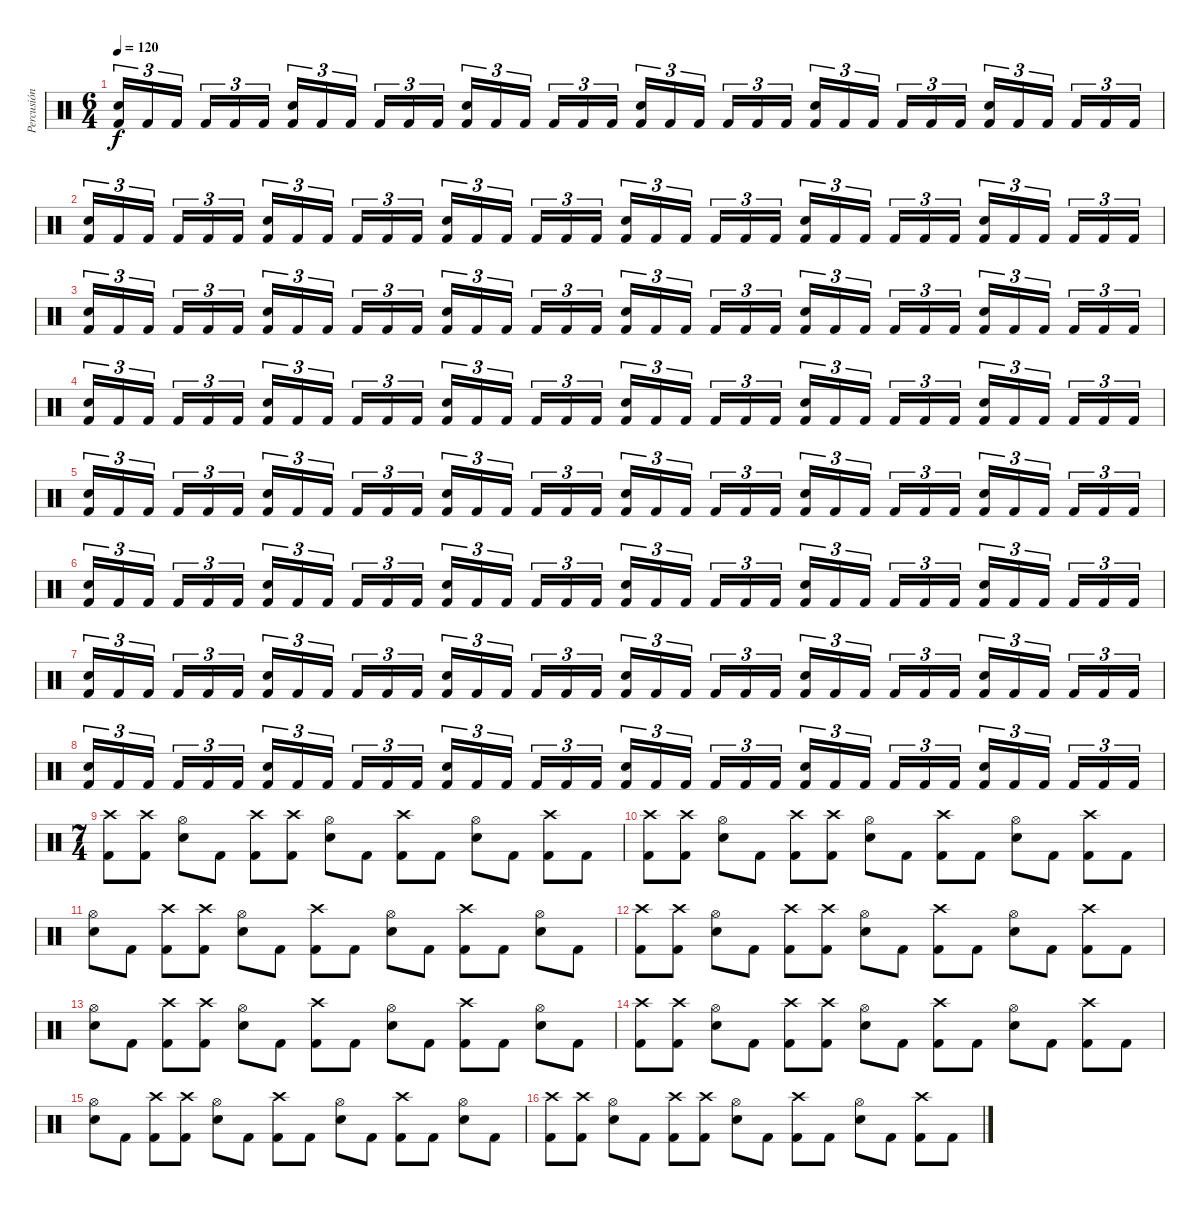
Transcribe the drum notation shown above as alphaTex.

\track ("Percusión" "Percusión") {instrument percussion}
\staff {score}
\articulation defaults
\ts (6 4)
\tempo 120
\clef neutral
\ks c
("Electric Snare (hit)" "Kick (hit) 2").16{tu (3 2) dy f} "Kick (hit) 2".16{tu (3 2)} "Kick (hit) 2".16{tu (3 2)} "Kick (hit) 2".16{tu (3 2)} "Kick (hit) 2".16{tu (3 2)} "Kick (hit) 2".16{tu (3 2)} ("Electric Snare (hit)" "Kick (hit) 2").16{tu (3 2)} "Kick (hit) 2".16{tu (3 2)} "Kick (hit) 2".16{tu (3 2)} "Kick (hit) 2".16{tu (3 2)} "Kick (hit) 2".16{tu (3 2)} "Kick (hit) 2".16{tu (3 2)} ("Electric Snare (hit)" "Kick (hit) 2").16{tu (3 2)} "Kick (hit) 2".16{tu (3 2)} "Kick (hit) 2".16{tu (3 2)} "Kick (hit) 2".16{tu (3 2)} "Kick (hit) 2".16{tu (3 2)} "Kick (hit) 2".16{tu (3 2)} ("Electric Snare (hit)" "Kick (hit) 2").16{tu (3 2)} "Kick (hit) 2".16{tu (3 2)} "Kick (hit) 2".16{tu (3 2)} "Kick (hit) 2".16{tu (3 2)} "Kick (hit) 2".16{tu (3 2)} "Kick (hit) 2".16{tu (3 2)} ("Electric Snare (hit)" "Kick (hit) 2").16{tu (3 2)} "Kick (hit) 2".16{tu (3 2)} "Kick (hit) 2".16{tu (3 2)} "Kick (hit) 2".16{tu (3 2)} "Kick (hit) 2".16{tu (3 2)} "Kick (hit) 2".16{tu (3 2)} ("Electric Snare (hit)" "Kick (hit) 2").16{tu (3 2)} "Kick (hit) 2".16{tu (3 2)} "Kick (hit) 2".16{tu (3 2)} "Kick (hit) 2".16{tu (3 2)} "Kick (hit) 2".16{tu (3 2)} "Kick (hit) 2".16{tu (3 2)} |
("Electric Snare (hit)" "Kick (hit) 2").16{tu (3 2)} "Kick (hit) 2".16{tu (3 2)} "Kick (hit) 2".16{tu (3 2)} "Kick (hit) 2".16{tu (3 2)} "Kick (hit) 2".16{tu (3 2)} "Kick (hit) 2".16{tu (3 2)} ("Electric Snare (hit)" "Kick (hit) 2").16{tu (3 2)} "Kick (hit) 2".16{tu (3 2)} "Kick (hit) 2".16{tu (3 2)} "Kick (hit) 2".16{tu (3 2)} "Kick (hit) 2".16{tu (3 2)} "Kick (hit) 2".16{tu (3 2)} ("Electric Snare (hit)" "Kick (hit) 2").16{tu (3 2)} "Kick (hit) 2".16{tu (3 2)} "Kick (hit) 2".16{tu (3 2)} "Kick (hit) 2".16{tu (3 2)} "Kick (hit) 2".16{tu (3 2)} "Kick (hit) 2".16{tu (3 2)} ("Electric Snare (hit)" "Kick (hit) 2").16{tu (3 2)} "Kick (hit) 2".16{tu (3 2)} "Kick (hit) 2".16{tu (3 2)} "Kick (hit) 2".16{tu (3 2)} "Kick (hit) 2".16{tu (3 2)} "Kick (hit) 2".16{tu (3 2)} ("Electric Snare (hit)" "Kick (hit) 2").16{tu (3 2)} "Kick (hit) 2".16{tu (3 2)} "Kick (hit) 2".16{tu (3 2)} "Kick (hit) 2".16{tu (3 2)} "Kick (hit) 2".16{tu (3 2)} "Kick (hit) 2".16{tu (3 2)} ("Electric Snare (hit)" "Kick (hit) 2").16{tu (3 2)} "Kick (hit) 2".16{tu (3 2)} "Kick (hit) 2".16{tu (3 2)} "Kick (hit) 2".16{tu (3 2)} "Kick (hit) 2".16{tu (3 2)} "Kick (hit) 2".16{tu (3 2)} |
("Electric Snare (hit)" "Kick (hit) 2").16{tu (3 2)} "Kick (hit) 2".16{tu (3 2)} "Kick (hit) 2".16{tu (3 2)} "Kick (hit) 2".16{tu (3 2)} "Kick (hit) 2".16{tu (3 2)} "Kick (hit) 2".16{tu (3 2)} ("Electric Snare (hit)" "Kick (hit) 2").16{tu (3 2)} "Kick (hit) 2".16{tu (3 2)} "Kick (hit) 2".16{tu (3 2)} "Kick (hit) 2".16{tu (3 2)} "Kick (hit) 2".16{tu (3 2)} "Kick (hit) 2".16{tu (3 2)} ("Electric Snare (hit)" "Kick (hit) 2").16{tu (3 2)} "Kick (hit) 2".16{tu (3 2)} "Kick (hit) 2".16{tu (3 2)} "Kick (hit) 2".16{tu (3 2)} "Kick (hit) 2".16{tu (3 2)} "Kick (hit) 2".16{tu (3 2)} ("Electric Snare (hit)" "Kick (hit) 2").16{tu (3 2)} "Kick (hit) 2".16{tu (3 2)} "Kick (hit) 2".16{tu (3 2)} "Kick (hit) 2".16{tu (3 2)} "Kick (hit) 2".16{tu (3 2)} "Kick (hit) 2".16{tu (3 2)} ("Electric Snare (hit)" "Kick (hit) 2").16{tu (3 2)} "Kick (hit) 2".16{tu (3 2)} "Kick (hit) 2".16{tu (3 2)} "Kick (hit) 2".16{tu (3 2)} "Kick (hit) 2".16{tu (3 2)} "Kick (hit) 2".16{tu (3 2)} ("Electric Snare (hit)" "Kick (hit) 2").16{tu (3 2)} "Kick (hit) 2".16{tu (3 2)} "Kick (hit) 2".16{tu (3 2)} "Kick (hit) 2".16{tu (3 2)} "Kick (hit) 2".16{tu (3 2)} "Kick (hit) 2".16{tu (3 2)} |
("Electric Snare (hit)" "Kick (hit) 2").16{tu (3 2)} "Kick (hit) 2".16{tu (3 2)} "Kick (hit) 2".16{tu (3 2)} "Kick (hit) 2".16{tu (3 2)} "Kick (hit) 2".16{tu (3 2)} "Kick (hit) 2".16{tu (3 2)} ("Electric Snare (hit)" "Kick (hit) 2").16{tu (3 2)} "Kick (hit) 2".16{tu (3 2)} "Kick (hit) 2".16{tu (3 2)} "Kick (hit) 2".16{tu (3 2)} "Kick (hit) 2".16{tu (3 2)} "Kick (hit) 2".16{tu (3 2)} ("Electric Snare (hit)" "Kick (hit) 2").16{tu (3 2)} "Kick (hit) 2".16{tu (3 2)} "Kick (hit) 2".16{tu (3 2)} "Kick (hit) 2".16{tu (3 2)} "Kick (hit) 2".16{tu (3 2)} "Kick (hit) 2".16{tu (3 2)} ("Electric Snare (hit)" "Kick (hit) 2").16{tu (3 2)} "Kick (hit) 2".16{tu (3 2)} "Kick (hit) 2".16{tu (3 2)} "Kick (hit) 2".16{tu (3 2)} "Kick (hit) 2".16{tu (3 2)} "Kick (hit) 2".16{tu (3 2)} ("Electric Snare (hit)" "Kick (hit) 2").16{tu (3 2)} "Kick (hit) 2".16{tu (3 2)} "Kick (hit) 2".16{tu (3 2)} "Kick (hit) 2".16{tu (3 2)} "Kick (hit) 2".16{tu (3 2)} "Kick (hit) 2".16{tu (3 2)} ("Electric Snare (hit)" "Kick (hit) 2").16{tu (3 2)} "Kick (hit) 2".16{tu (3 2)} "Kick (hit) 2".16{tu (3 2)} "Kick (hit) 2".16{tu (3 2)} "Kick (hit) 2".16{tu (3 2)} "Kick (hit) 2".16{tu (3 2)} |
("Electric Snare (hit)" "Kick (hit) 2").16{tu (3 2)} "Kick (hit) 2".16{tu (3 2)} "Kick (hit) 2".16{tu (3 2)} "Kick (hit) 2".16{tu (3 2)} "Kick (hit) 2".16{tu (3 2)} "Kick (hit) 2".16{tu (3 2)} ("Electric Snare (hit)" "Kick (hit) 2").16{tu (3 2)} "Kick (hit) 2".16{tu (3 2)} "Kick (hit) 2".16{tu (3 2)} "Kick (hit) 2".16{tu (3 2)} "Kick (hit) 2".16{tu (3 2)} "Kick (hit) 2".16{tu (3 2)} ("Electric Snare (hit)" "Kick (hit) 2").16{tu (3 2)} "Kick (hit) 2".16{tu (3 2)} "Kick (hit) 2".16{tu (3 2)} "Kick (hit) 2".16{tu (3 2)} "Kick (hit) 2".16{tu (3 2)} "Kick (hit) 2".16{tu (3 2)} ("Electric Snare (hit)" "Kick (hit) 2").16{tu (3 2)} "Kick (hit) 2".16{tu (3 2)} "Kick (hit) 2".16{tu (3 2)} "Kick (hit) 2".16{tu (3 2)} "Kick (hit) 2".16{tu (3 2)} "Kick (hit) 2".16{tu (3 2)} ("Electric Snare (hit)" "Kick (hit) 2").16{tu (3 2)} "Kick (hit) 2".16{tu (3 2)} "Kick (hit) 2".16{tu (3 2)} "Kick (hit) 2".16{tu (3 2)} "Kick (hit) 2".16{tu (3 2)} "Kick (hit) 2".16{tu (3 2)} ("Electric Snare (hit)" "Kick (hit) 2").16{tu (3 2)} "Kick (hit) 2".16{tu (3 2)} "Kick (hit) 2".16{tu (3 2)} "Kick (hit) 2".16{tu (3 2)} "Kick (hit) 2".16{tu (3 2)} "Kick (hit) 2".16{tu (3 2)} |
("Electric Snare (hit)" "Kick (hit) 2").16{tu (3 2)} "Kick (hit) 2".16{tu (3 2)} "Kick (hit) 2".16{tu (3 2)} "Kick (hit) 2".16{tu (3 2)} "Kick (hit) 2".16{tu (3 2)} "Kick (hit) 2".16{tu (3 2)} ("Electric Snare (hit)" "Kick (hit) 2").16{tu (3 2)} "Kick (hit) 2".16{tu (3 2)} "Kick (hit) 2".16{tu (3 2)} "Kick (hit) 2".16{tu (3 2)} "Kick (hit) 2".16{tu (3 2)} "Kick (hit) 2".16{tu (3 2)} ("Electric Snare (hit)" "Kick (hit) 2").16{tu (3 2)} "Kick (hit) 2".16{tu (3 2)} "Kick (hit) 2".16{tu (3 2)} "Kick (hit) 2".16{tu (3 2)} "Kick (hit) 2".16{tu (3 2)} "Kick (hit) 2".16{tu (3 2)} ("Electric Snare (hit)" "Kick (hit) 2").16{tu (3 2)} "Kick (hit) 2".16{tu (3 2)} "Kick (hit) 2".16{tu (3 2)} "Kick (hit) 2".16{tu (3 2)} "Kick (hit) 2".16{tu (3 2)} "Kick (hit) 2".16{tu (3 2)} ("Electric Snare (hit)" "Kick (hit) 2").16{tu (3 2)} "Kick (hit) 2".16{tu (3 2)} "Kick (hit) 2".16{tu (3 2)} "Kick (hit) 2".16{tu (3 2)} "Kick (hit) 2".16{tu (3 2)} "Kick (hit) 2".16{tu (3 2)} ("Electric Snare (hit)" "Kick (hit) 2").16{tu (3 2)} "Kick (hit) 2".16{tu (3 2)} "Kick (hit) 2".16{tu (3 2)} "Kick (hit) 2".16{tu (3 2)} "Kick (hit) 2".16{tu (3 2)} "Kick (hit) 2".16{tu (3 2)} |
("Electric Snare (hit)" "Kick (hit) 2").16{tu (3 2)} "Kick (hit) 2".16{tu (3 2)} "Kick (hit) 2".16{tu (3 2)} "Kick (hit) 2".16{tu (3 2)} "Kick (hit) 2".16{tu (3 2)} "Kick (hit) 2".16{tu (3 2)} ("Electric Snare (hit)" "Kick (hit) 2").16{tu (3 2)} "Kick (hit) 2".16{tu (3 2)} "Kick (hit) 2".16{tu (3 2)} "Kick (hit) 2".16{tu (3 2)} "Kick (hit) 2".16{tu (3 2)} "Kick (hit) 2".16{tu (3 2)} ("Electric Snare (hit)" "Kick (hit) 2").16{tu (3 2)} "Kick (hit) 2".16{tu (3 2)} "Kick (hit) 2".16{tu (3 2)} "Kick (hit) 2".16{tu (3 2)} "Kick (hit) 2".16{tu (3 2)} "Kick (hit) 2".16{tu (3 2)} ("Electric Snare (hit)" "Kick (hit) 2").16{tu (3 2)} "Kick (hit) 2".16{tu (3 2)} "Kick (hit) 2".16{tu (3 2)} "Kick (hit) 2".16{tu (3 2)} "Kick (hit) 2".16{tu (3 2)} "Kick (hit) 2".16{tu (3 2)} ("Electric Snare (hit)" "Kick (hit) 2").16{tu (3 2)} "Kick (hit) 2".16{tu (3 2)} "Kick (hit) 2".16{tu (3 2)} "Kick (hit) 2".16{tu (3 2)} "Kick (hit) 2".16{tu (3 2)} "Kick (hit) 2".16{tu (3 2)} ("Electric Snare (hit)" "Kick (hit) 2").16{tu (3 2)} "Kick (hit) 2".16{tu (3 2)} "Kick (hit) 2".16{tu (3 2)} "Kick (hit) 2".16{tu (3 2)} "Kick (hit) 2".16{tu (3 2)} "Kick (hit) 2".16{tu (3 2)} |
("Electric Snare (hit)" "Kick (hit) 2").16{tu (3 2)} "Kick (hit) 2".16{tu (3 2)} "Kick (hit) 2".16{tu (3 2)} "Kick (hit) 2".16{tu (3 2)} "Kick (hit) 2".16{tu (3 2)} "Kick (hit) 2".16{tu (3 2)} ("Electric Snare (hit)" "Kick (hit) 2").16{tu (3 2)} "Kick (hit) 2".16{tu (3 2)} "Kick (hit) 2".16{tu (3 2)} "Kick (hit) 2".16{tu (3 2)} "Kick (hit) 2".16{tu (3 2)} "Kick (hit) 2".16{tu (3 2)} ("Electric Snare (hit)" "Kick (hit) 2").16{tu (3 2)} "Kick (hit) 2".16{tu (3 2)} "Kick (hit) 2".16{tu (3 2)} "Kick (hit) 2".16{tu (3 2)} "Kick (hit) 2".16{tu (3 2)} "Kick (hit) 2".16{tu (3 2)} ("Electric Snare (hit)" "Kick (hit) 2").16{tu (3 2)} "Kick (hit) 2".16{tu (3 2)} "Kick (hit) 2".16{tu (3 2)} "Kick (hit) 2".16{tu (3 2)} "Kick (hit) 2".16{tu (3 2)} "Kick (hit) 2".16{tu (3 2)} ("Electric Snare (hit)" "Kick (hit) 2").16{tu (3 2)} "Kick (hit) 2".16{tu (3 2)} "Kick (hit) 2".16{tu (3 2)} "Kick (hit) 2".16{tu (3 2)} "Kick (hit) 2".16{tu (3 2)} "Kick (hit) 2".16{tu (3 2)} ("Electric Snare (hit)" "Kick (hit) 2").16{tu (3 2)} "Kick (hit) 2".16{tu (3 2)} "Kick (hit) 2".16{tu (3 2)} "Kick (hit) 2".16{tu (3 2)} "Kick (hit) 2".16{tu (3 2)} "Kick (hit) 2".16{tu (3 2)} |
\ts (7 4)
("Crash high (hit)" "Kick (hit) 2").8 ("Crash high (hit)" "Kick (hit) 2").8 ("Hi-Hat (open)" "Electric Snare (hit)").8 "Kick (hit) 2".8 ("Crash high (hit)" "Kick (hit) 2").8 ("Crash high (hit)" "Kick (hit) 2").8 ("Hi-Hat (open)" "Electric Snare (hit)").8 "Kick (hit) 2".8 ("Crash high (hit)" "Kick (hit) 2").8 "Kick (hit) 2".8 ("Hi-Hat (open)" "Electric Snare (hit)").8 "Kick (hit) 2".8 ("Crash high (hit)" "Kick (hit) 2").8 "Kick (hit) 2".8 |
("Crash high (hit)" "Kick (hit) 2").8 ("Crash high (hit)" "Kick (hit) 2").8 ("Hi-Hat (open)" "Electric Snare (hit)").8 "Kick (hit) 2".8 ("Crash high (hit)" "Kick (hit) 2").8 ("Crash high (hit)" "Kick (hit) 2").8 ("Hi-Hat (open)" "Electric Snare (hit)").8 "Kick (hit) 2".8 ("Crash high (hit)" "Kick (hit) 2").8 "Kick (hit) 2".8 ("Hi-Hat (open)" "Electric Snare (hit)").8 "Kick (hit) 2".8 ("Crash high (hit)" "Kick (hit) 2").8 "Kick (hit) 2".8 |
("Hi-Hat (open)" "Electric Snare (hit)").8 "Kick (hit) 2".8 ("Crash high (hit)" "Kick (hit) 2").8 ("Crash high (hit)" "Kick (hit) 2").8 ("Hi-Hat (open)" "Electric Snare (hit)").8 "Kick (hit) 2".8 ("Crash high (hit)" "Kick (hit) 2").8 "Kick (hit) 2".8 ("Hi-Hat (open)" "Electric Snare (hit)").8 "Kick (hit) 2".8 ("Crash high (hit)" "Kick (hit) 2").8 "Kick (hit) 2".8 ("Hi-Hat (open)" "Electric Snare (hit)").8 "Kick (hit) 2".8 |
("Crash high (hit)" "Kick (hit) 2").8 ("Crash high (hit)" "Kick (hit) 2").8 ("Hi-Hat (open)" "Electric Snare (hit)").8 "Kick (hit) 2".8 ("Crash high (hit)" "Kick (hit) 2").8 ("Crash high (hit)" "Kick (hit) 2").8 ("Hi-Hat (open)" "Electric Snare (hit)").8 "Kick (hit) 2".8 ("Crash high (hit)" "Kick (hit) 2").8 "Kick (hit) 2".8 ("Hi-Hat (open)" "Electric Snare (hit)").8 "Kick (hit) 2".8 ("Crash high (hit)" "Kick (hit) 2").8 "Kick (hit) 2".8 |
("Hi-Hat (open)" "Electric Snare (hit)").8 "Kick (hit) 2".8 ("Crash high (hit)" "Kick (hit) 2").8 ("Crash high (hit)" "Kick (hit) 2").8 ("Hi-Hat (open)" "Electric Snare (hit)").8 "Kick (hit) 2".8 ("Crash high (hit)" "Kick (hit) 2").8 "Kick (hit) 2".8 ("Hi-Hat (open)" "Electric Snare (hit)").8 "Kick (hit) 2".8 ("Crash high (hit)" "Kick (hit) 2").8 "Kick (hit) 2".8 ("Hi-Hat (open)" "Electric Snare (hit)").8 "Kick (hit) 2".8 |
("Crash high (hit)" "Kick (hit) 2").8 ("Crash high (hit)" "Kick (hit) 2").8 ("Hi-Hat (open)" "Electric Snare (hit)").8 "Kick (hit) 2".8 ("Crash high (hit)" "Kick (hit) 2").8 ("Crash high (hit)" "Kick (hit) 2").8 ("Hi-Hat (open)" "Electric Snare (hit)").8 "Kick (hit) 2".8 ("Crash high (hit)" "Kick (hit) 2").8 "Kick (hit) 2".8 ("Hi-Hat (open)" "Electric Snare (hit)").8 "Kick (hit) 2".8 ("Crash high (hit)" "Kick (hit) 2").8 "Kick (hit) 2".8 |
("Hi-Hat (open)" "Electric Snare (hit)").8 "Kick (hit) 2".8 ("Crash high (hit)" "Kick (hit) 2").8 ("Crash high (hit)" "Kick (hit) 2").8 ("Hi-Hat (open)" "Electric Snare (hit)").8 "Kick (hit) 2".8 ("Crash high (hit)" "Kick (hit) 2").8 "Kick (hit) 2".8 ("Hi-Hat (open)" "Electric Snare (hit)").8 "Kick (hit) 2".8 ("Crash high (hit)" "Kick (hit) 2").8 "Kick (hit) 2".8 ("Hi-Hat (open)" "Electric Snare (hit)").8 "Kick (hit) 2".8 |
("Crash high (hit)" "Kick (hit) 2").8 ("Crash high (hit)" "Kick (hit) 2").8 ("Hi-Hat (open)" "Electric Snare (hit)").8 "Kick (hit) 2".8 ("Crash high (hit)" "Kick (hit) 2").8 ("Crash high (hit)" "Kick (hit) 2").8 ("Hi-Hat (open)" "Electric Snare (hit)").8 "Kick (hit) 2".8 ("Crash high (hit)" "Kick (hit) 2").8 "Kick (hit) 2".8 ("Hi-Hat (open)" "Electric Snare (hit)").8 "Kick (hit) 2".8 ("Crash high (hit)" "Kick (hit) 2").8 "Kick (hit) 2".8
